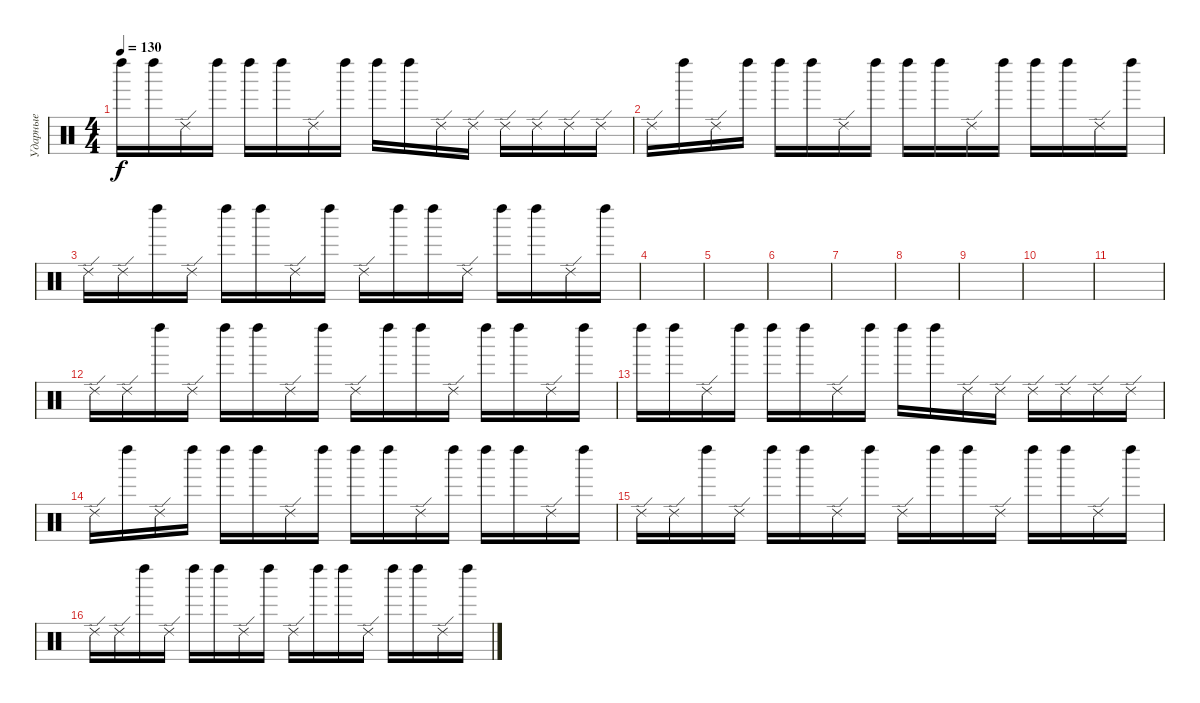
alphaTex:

\track ("Ударные" "Ударные") {instrument percussion}
\staff {score}
\articulation defaults
\ts (4 4)
\tempo 130
\clef neutral
\ks c "Left Maraca (hit)".16{dy f} "Left Maraca (hit)".16 "Ride (edge) 2".16 "Left Maraca (hit)".16 "Left Maraca (hit)".16 "Left Maraca (hit)".16 "Ride (edge) 2".16 "Left Maraca (hit)".16 "Left Maraca (hit)".16 "Left Maraca (hit)".16 "Ride (edge) 2".16 "Ride (edge) 2".16 "Ride (edge) 2".16 "Ride (edge) 2".16 "Ride (edge) 2".16 "Ride (edge) 2".16
|
"Ride (edge) 2".16 "Left Maraca (hit)".16 "Ride (edge) 2".16 "Left Maraca (hit)".16 "Left Maraca (hit)".16 "Left Maraca (hit)".16 "Ride (edge) 2".16 "Left Maraca (hit)".16 "Left Maraca (hit)".16 "Left Maraca (hit)".16 "Ride (edge) 2".16 "Left Maraca (hit)".16 "Left Maraca (hit)".16 "Left Maraca (hit)".16 "Ride (edge) 2".16 "Left Maraca (hit)".16 |
"Ride (edge) 2".16 "Ride (edge) 2".16 "Left Maraca (hit)".16 "Ride (edge) 2".16 "Left Maraca (hit)".16 "Left Maraca (hit)".16 "Ride (edge) 2".16 "Left Maraca (hit)".16 "Ride (edge) 2".16 "Left Maraca (hit)".16 "Left Maraca (hit)".16 "Ride (edge) 2".16 "Left Maraca (hit)".16 "Left Maraca (hit)".16 "Ride (edge) 2".16 "Left Maraca (hit)".16 |
|
|
|
|
|
|
|
|
"Ride (edge) 2".16 "Ride (edge) 2".16 "Left Maraca (hit)".16 "Ride (edge) 2".16 "Left Maraca (hit)".16 "Left Maraca (hit)".16 "Ride (edge) 2".16 "Left Maraca (hit)".16 "Ride (edge) 2".16 "Left Maraca (hit)".16 "Left Maraca (hit)".16 "Ride (edge) 2".16 "Left Maraca (hit)".16 "Left Maraca (hit)".16 "Ride (edge) 2".16 "Left Maraca (hit)".16 |
"Left Maraca (hit)".16 "Left Maraca (hit)".16 "Ride (edge) 2".16 "Left Maraca (hit)".16 "Left Maraca (hit)".16 "Left Maraca (hit)".16 "Ride (edge) 2".16 "Left Maraca (hit)".16 "Left Maraca (hit)".16 "Left Maraca (hit)".16 "Ride (edge) 2".16 "Ride (edge) 2".16 "Ride (edge) 2".16 "Ride (edge) 2".16 "Ride (edge) 2".16 "Ride (edge) 2".16 |
"Ride (edge) 2".16 "Left Maraca (hit)".16 "Ride (edge) 2".16 "Left Maraca (hit)".16 "Left Maraca (hit)".16 "Left Maraca (hit)".16 "Ride (edge) 2".16 "Left Maraca (hit)".16 "Left Maraca (hit)".16 "Left Maraca (hit)".16 "Ride (edge) 2".16 "Left Maraca (hit)".16 "Left Maraca (hit)".16 "Left Maraca (hit)".16 "Ride (edge) 2".16 "Left Maraca (hit)".16 |
"Ride (edge) 2".16 "Ride (edge) 2".16 "Left Maraca (hit)".16 "Ride (edge) 2".16 "Left Maraca (hit)".16 "Left Maraca (hit)".16 "Ride (edge) 2".16 "Left Maraca (hit)".16 "Ride (edge) 2".16 "Left Maraca (hit)".16 "Left Maraca (hit)".16 "Ride (edge) 2".16 "Left Maraca (hit)".16 "Left Maraca (hit)".16 "Ride (edge) 2".16 "Left Maraca (hit)".16 |
"Ride (edge) 2".16 "Ride (edge) 2".16 "Left Maraca (hit)".16 "Ride (edge) 2".16 "Left Maraca (hit)".16 "Left Maraca (hit)".16 "Ride (edge) 2".16 "Left Maraca (hit)".16 "Ride (edge) 2".16 "Left Maraca (hit)".16 "Left Maraca (hit)".16 "Ride (edge) 2".16 "Left Maraca (hit)".16 "Left Maraca (hit)".16 "Ride (edge) 2".16 "Left Maraca (hit)".16
